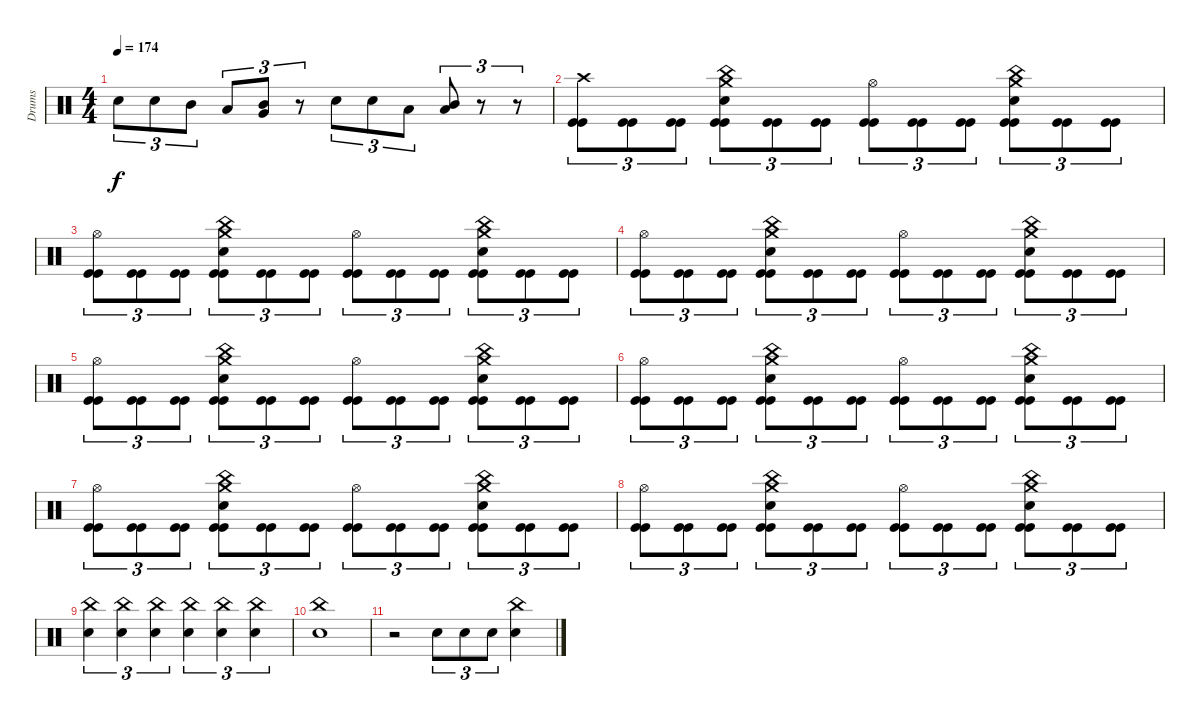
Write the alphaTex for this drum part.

\track ("Drums" "Drums") {instrument percussion}
\staff {score}
\articulation defaults
\ts (4 4)
\tempo 174
\clef neutral
\ks c "Snare (hit) 2".8{tu (3 2) dy f} "Snare (hit) 2".8{tu (3 2)} "Mid Tom (hit)".8{tu (3 2)} "Low Tom (hit)".8{tu (3 2)}
("Very Low Tom (hit)" "Mid Tom (hit)").8{tu (3 2)} r.8{tu (3 2)} "Snare (hit) 2".8{tu (3 2)} "Snare (hit) 2".8{tu (3 2)} "Low Tom (hit)".8{tu (3 2)} ("Low Floor Tom (hit)" "Mid Tom (hit)").8{tu (3 2)} r.8{tu (3 2)} r.8{tu (3 2)} |
("Kick (hit)" "Kick (hit)" "Crash high (hit)").8{tu (3 2)} ("Kick (hit)" "Kick (hit)").8{tu (3 2)} ("Kick (hit)" "Kick (hit)").8{tu (3 2)} ("Kick (hit)" "Kick (hit)" "Snare (hit) 2" "China (hit)" "Crash medium (hit)").8{tu (3 2)} ("Kick (hit)" "Kick (hit)").8{tu (3 2)} ("Kick (hit)" "Kick (hit)").8{tu (3 2)} ("Kick (hit)" "Kick (hit)" "Hi-Hat (open)").8{tu (3 2)} ("Kick (hit)" "Kick (hit)").8{tu (3 2)} ("Kick (hit)" "Kick (hit)").8{tu (3 2)} ("Kick (hit)" "Kick (hit)" "Snare (hit) 2" "Crash medium (hit)" "China (hit)").8{tu (3 2)} ("Kick (hit)" "Kick (hit)").8{tu (3 2)} ("Kick (hit)" "Kick (hit)").8{tu (3 2)} |
("Kick (hit)" "Kick (hit)" "Hi-Hat (open)").8{tu (3 2)} ("Kick (hit)" "Kick (hit)").8{tu (3 2)} ("Kick (hit)" "Kick (hit)").8{tu (3 2)} ("Kick (hit)" "Kick (hit)" "Snare (hit) 2" "Crash medium (hit)" "China (hit)").8{tu (3 2)} ("Kick (hit)" "Kick (hit)").8{tu (3 2)} ("Kick (hit)" "Kick (hit)").8{tu (3 2)} ("Kick (hit)" "Kick (hit)" "Hi-Hat (open)").8{tu (3 2)} ("Kick (hit)" "Kick (hit)").8{tu (3 2)} ("Kick (hit)" "Kick (hit)").8{tu (3 2)} ("Kick (hit)" "Kick (hit)" "Snare (hit) 2" "Crash medium (hit)" "China (hit)").8{tu (3 2)} ("Kick (hit)" "Kick (hit)").8{tu (3 2)} ("Kick (hit)" "Kick (hit)").8{tu (3 2)} |
("Kick (hit)" "Kick (hit)" "Hi-Hat (open)").8{tu (3 2)} ("Kick (hit)" "Kick (hit)").8{tu (3 2)} ("Kick (hit)" "Kick (hit)").8{tu (3 2)} ("Kick (hit)" "Kick (hit)" "Snare (hit) 2" "Crash medium (hit)" "China (hit)").8{tu (3 2)} ("Kick (hit)" "Kick (hit)").8{tu (3 2)} ("Kick (hit)" "Kick (hit)").8{tu (3 2)} ("Kick (hit)" "Kick (hit)" "Hi-Hat (open)").8{tu (3 2)} ("Kick (hit)" "Kick (hit)").8{tu (3 2)} ("Kick (hit)" "Kick (hit)").8{tu (3 2)} ("Kick (hit)" "Kick (hit)" "Snare (hit) 2" "Crash medium (hit)" "China (hit)").8{tu (3 2)} ("Kick (hit)" "Kick (hit)").8{tu (3 2)} ("Kick (hit)" "Kick (hit)").8{tu (3 2)} |
("Kick (hit)" "Kick (hit)" "Hi-Hat (open)").8{tu (3 2)} ("Kick (hit)" "Kick (hit)").8{tu (3 2)} ("Kick (hit)" "Kick (hit)").8{tu (3 2)} ("Kick (hit)" "Kick (hit)" "Snare (hit) 2" "Crash medium (hit)" "China (hit)").8{tu (3 2)} ("Kick (hit)" "Kick (hit)").8{tu (3 2)} ("Kick (hit)" "Kick (hit)").8{tu (3 2)} ("Kick (hit)" "Kick (hit)" "Hi-Hat (open)").8{tu (3 2)} ("Kick (hit)" "Kick (hit)").8{tu (3 2)} ("Kick (hit)" "Kick (hit)").8{tu (3 2)} ("Kick (hit)" "Kick (hit)" "Snare (hit) 2" "Crash medium (hit)" "China (hit)").8{tu (3 2)} ("Kick (hit)" "Kick (hit)").8{tu (3 2)} ("Kick (hit)" "Kick (hit)").8{tu (3 2)} |
("Kick (hit)" "Kick (hit)" "Hi-Hat (open)").8{tu (3 2)} ("Kick (hit)" "Kick (hit)").8{tu (3 2)} ("Kick (hit)" "Kick (hit)").8{tu (3 2)} ("Kick (hit)" "Kick (hit)" "Snare (hit) 2" "Crash medium (hit)" "China (hit)").8{tu (3 2)} ("Kick (hit)" "Kick (hit)").8{tu (3 2)} ("Kick (hit)" "Kick (hit)").8{tu (3 2)} ("Kick (hit)" "Kick (hit)" "Hi-Hat (open)").8{tu (3 2)} ("Kick (hit)" "Kick (hit)").8{tu (3 2)} ("Kick (hit)" "Kick (hit)").8{tu (3 2)} ("Kick (hit)" "Kick (hit)" "Snare (hit) 2" "Crash medium (hit)" "China (hit)").8{tu (3 2)} ("Kick (hit)" "Kick (hit)").8{tu (3 2)} ("Kick (hit)" "Kick (hit)").8{tu (3 2)} |
("Kick (hit)" "Kick (hit)" "Hi-Hat (open)").8{tu (3 2)} ("Kick (hit)" "Kick (hit)").8{tu (3 2)} ("Kick (hit)" "Kick (hit)").8{tu (3 2)} ("Kick (hit)" "Kick (hit)" "Snare (hit) 2" "Crash medium (hit)" "China (hit)").8{tu (3 2)} ("Kick (hit)" "Kick (hit)").8{tu (3 2)} ("Kick (hit)" "Kick (hit)").8{tu (3 2)} ("Kick (hit)" "Kick (hit)" "Hi-Hat (open)").8{tu (3 2)} ("Kick (hit)" "Kick (hit)").8{tu (3 2)} ("Kick (hit)" "Kick (hit)").8{tu (3 2)} ("Kick (hit)" "Kick (hit)" "Snare (hit) 2" "Crash medium (hit)" "China (hit)").8{tu (3 2)} ("Kick (hit)" "Kick (hit)").8{tu (3 2)} ("Kick (hit)" "Kick (hit)").8{tu (3 2)} |
("Kick (hit)" "Kick (hit)" "Hi-Hat (open)").8{tu (3 2)} ("Kick (hit)" "Kick (hit)").8{tu (3 2)} ("Kick (hit)" "Kick (hit)").8{tu (3 2)} ("Kick (hit)" "Kick (hit)" "Snare (hit) 2" "Crash medium (hit)" "China (hit)").8{tu (3 2)} ("Kick (hit)" "Kick (hit)").8{tu (3 2)} ("Kick (hit)" "Kick (hit)").8{tu (3 2)} ("Kick (hit)" "Kick (hit)" "Hi-Hat (open)").8{tu (3 2)} ("Kick (hit)" "Kick (hit)").8{tu (3 2)} ("Kick (hit)" "Kick (hit)").8{tu (3 2)} ("Kick (hit)" "Kick (hit)" "Snare (hit) 2" "Crash medium (hit)" "China (hit)").8{tu (3 2)} ("Kick (hit)" "Kick (hit)").8{tu (3 2)} ("Kick (hit)" "Kick (hit)").8{tu (3 2)} |
("Snare (hit) 2" "China (hit)").4{tu (3 2)} ("Snare (hit) 2" "China (hit)").4{tu (3 2)} ("Snare (hit) 2" "China (hit)").4{tu (3 2)} ("Snare (hit) 2" "China (hit)").4{tu (3 2)} ("Snare (hit) 2" "China (hit)").4{tu (3 2)} ("Snare (hit) 2" "China (hit)").4{tu (3 2)} |
("Snare (hit) 2" "China (hit)").1 |
r.2 "Snare (hit) 2".8{tu (3 2)} "Snare (hit) 2".8{tu (3 2)} "Snare (hit) 2".8{tu (3 2)} ("Snare (hit) 2" "China (hit)").4
